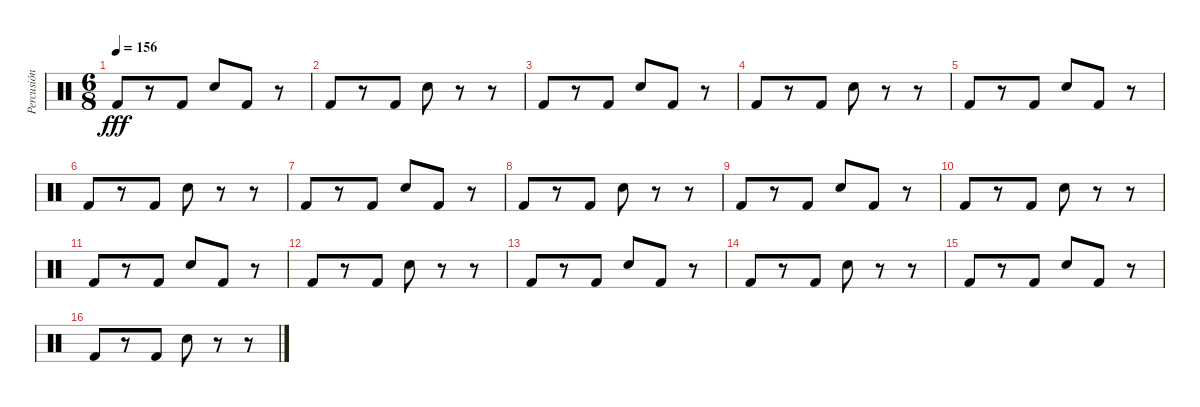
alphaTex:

\track ("Percusión" "Percusión") {instrument percussion}
\staff {score}
\articulation defaults
\ts (6 8)
\tempo 156
\clef neutral
\ks c "Kick (hit) 2".8{dy fff}
r.8 "Kick (hit) 2".8 "Snare (hit) 2".8 "Kick (hit) 2".8 r.8 |
"Kick (hit) 2".8 r.8 "Kick (hit) 2".8 "Snare (hit) 2".8 r.8 r.8 |
"Kick (hit) 2".8 r.8 "Kick (hit) 2".8 "Snare (hit) 2".8 "Kick (hit) 2".8 r.8 |
"Kick (hit) 2".8 r.8 "Kick (hit) 2".8 "Snare (hit) 2".8 r.8 r.8 |
"Kick (hit) 2".8 r.8 "Kick (hit) 2".8 "Snare (hit) 2".8 "Kick (hit) 2".8 r.8 |
"Kick (hit) 2".8 r.8 "Kick (hit) 2".8 "Snare (hit) 2".8 r.8 r.8 |
"Kick (hit) 2".8 r.8 "Kick (hit) 2".8 "Snare (hit) 2".8 "Kick (hit) 2".8 r.8 |
"Kick (hit) 2".8 r.8 "Kick (hit) 2".8 "Snare (hit) 2".8 r.8 r.8 |
"Kick (hit) 2".8 r.8 "Kick (hit) 2".8 "Snare (hit) 2".8 "Kick (hit) 2".8 r.8 |
"Kick (hit) 2".8 r.8 "Kick (hit) 2".8 "Snare (hit) 2".8 r.8 r.8 |
"Kick (hit) 2".8 r.8 "Kick (hit) 2".8 "Snare (hit) 2".8 "Kick (hit) 2".8 r.8 |
"Kick (hit) 2".8 r.8 "Kick (hit) 2".8 "Snare (hit) 2".8 r.8 r.8 |
"Kick (hit) 2".8 r.8 "Kick (hit) 2".8 "Snare (hit) 2".8 "Kick (hit) 2".8 r.8 |
"Kick (hit) 2".8 r.8 "Kick (hit) 2".8 "Snare (hit) 2".8 r.8 r.8 |
"Kick (hit) 2".8 r.8 "Kick (hit) 2".8 "Snare (hit) 2".8 "Kick (hit) 2".8 r.8 |
"Kick (hit) 2".8 r.8 "Kick (hit) 2".8 "Snare (hit) 2".8 r.8 r.8
